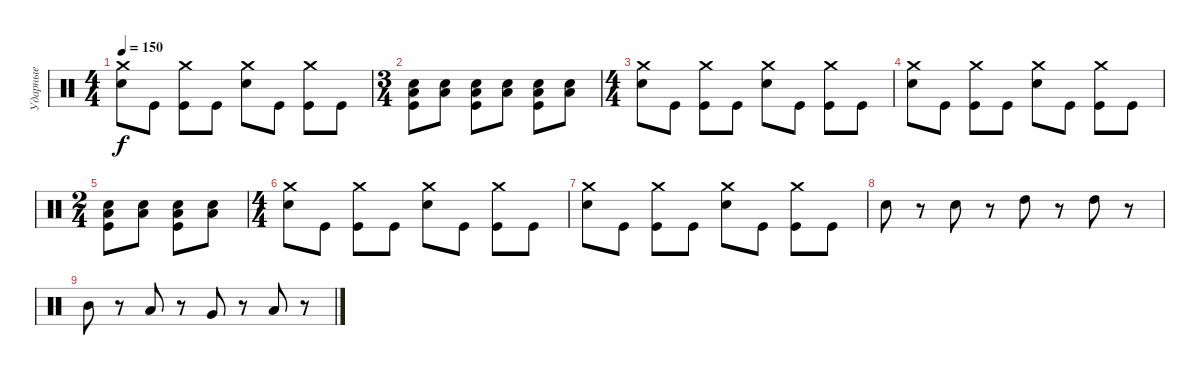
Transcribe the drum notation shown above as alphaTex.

\track ("Ударные" "Ударные") {instrument percussion}
\staff {score}
\articulation defaults
\ts (4 4)
\tempo 150
\clef neutral
\ks c
("Crash medium (hit)" "Electric Snare (hit)").8{dy f} "Kick (hit)".8 ("Crash medium (hit)" "Kick (hit)").8 "Kick (hit)".8 ("Crash medium (hit)" "Electric Snare (hit)").8 "Kick (hit)".8 ("Crash medium (hit)" "Kick (hit)").8 "Kick (hit)".8 |
\ts (3 4)
("Low Tom (hit)" "Electric Snare (hit)" "Kick (hit)").8 ("Low Tom (hit)" "Electric Snare (hit)").8 ("Low Tom (hit)" "Electric Snare (hit)" "Kick (hit)").8 ("Low Tom (hit)" "Electric Snare (hit)").8 ("Low Tom (hit)" "Electric Snare (hit)" "Kick (hit)").8 ("Low Tom (hit)" "Electric Snare (hit)").8 |
\ts (4 4)
("Crash medium (hit)" "Electric Snare (hit)").8 "Kick (hit)".8 ("Crash medium (hit)" "Kick (hit)").8 "Kick (hit)".8 ("Crash medium (hit)" "Electric Snare (hit)").8 "Kick (hit)".8 ("Crash medium (hit)" "Kick (hit)").8 "Kick (hit)".8 |
("Crash medium (hit)" "Electric Snare (hit)").8 "Kick (hit)".8 ("Crash medium (hit)" "Kick (hit)").8 "Kick (hit)".8 ("Crash medium (hit)" "Electric Snare (hit)").8 "Kick (hit)".8 ("Crash medium (hit)" "Kick (hit)").8 "Kick (hit)".8 |
\ts (2 4)
("Low Tom (hit)" "Electric Snare (hit)" "Kick (hit)").8 ("Low Tom (hit)" "Electric Snare (hit)").8 ("Low Tom (hit)" "Electric Snare (hit)" "Kick (hit)").8 ("Low Tom (hit)" "Electric Snare (hit)").8 |
\ts (4 4)
("Crash medium (hit)" "Electric Snare (hit)").8 "Kick (hit)".8 ("Crash medium (hit)" "Kick (hit)").8 "Kick (hit)".8 ("Crash medium (hit)" "Electric Snare (hit)").8 "Kick (hit)".8 ("Crash medium (hit)" "Kick (hit)").8 "Kick (hit)".8 |
("Crash medium (hit)" "Electric Snare (hit)").8 "Kick (hit)".8 ("Crash medium (hit)" "Kick (hit)").8 "Kick (hit)".8 ("Crash medium (hit)" "Electric Snare (hit)").8 "Kick (hit)".8 ("Crash medium (hit)" "Kick (hit)").8 "Kick (hit)".8 |
"Electric Snare (hit)".8 r.8 "Electric Snare (hit)".8 r.8 "High Tom (hit)".8 r.8 "High Tom (hit)".8 r.8 |
"Mid Tom (hit)".8 r.8 "Low Tom (hit)".8 r.8 "Very Low Tom (hit)".8 r.8 "Low Floor Tom (hit)".8 r.8
